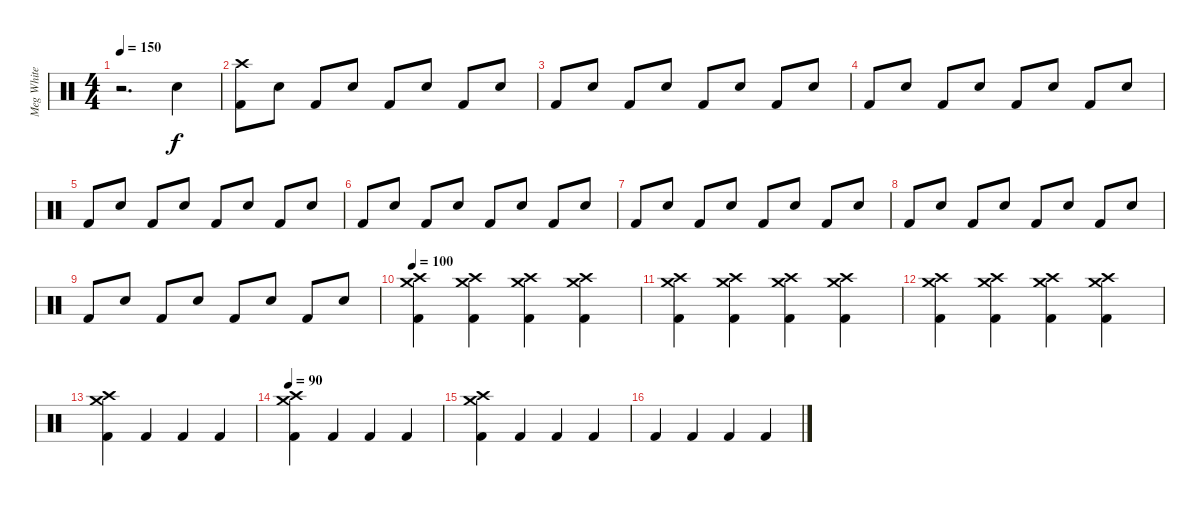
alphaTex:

\track ("Meg White" "Meg White") {instrument percussion}
\staff {score}
\articulation defaults
\ts (4 4)
\tempo 150
\clef neutral
\ks c
r.2{d dy f} "Electric Snare (hit)".4 |
("Kick (hit) 2" "Crash high (hit)").8 "Electric Snare (hit)".8 "Kick (hit) 2".8 "Electric Snare (hit)".8 "Kick (hit) 2".8 "Electric Snare (hit)".8 "Kick (hit) 2".8 "Electric Snare (hit)".8 |
"Kick (hit) 2".8 "Electric Snare (hit)".8 "Kick (hit) 2".8 "Electric Snare (hit)".8 "Kick (hit) 2".8 "Electric Snare (hit)".8 "Kick (hit) 2".8 "Electric Snare (hit)".8 |
"Kick (hit) 2".8 "Electric Snare (hit)".8 "Kick (hit) 2".8 "Electric Snare (hit)".8 "Kick (hit) 2".8 "Electric Snare (hit)".8 "Kick (hit) 2".8 "Electric Snare (hit)".8 |
"Kick (hit) 2".8 "Electric Snare (hit)".8 "Kick (hit) 2".8 "Electric Snare (hit)".8 "Kick (hit) 2".8 "Electric Snare (hit)".8 "Kick (hit) 2".8 "Electric Snare (hit)".8 |
"Kick (hit) 2".8 "Electric Snare (hit)".8 "Kick (hit) 2".8 "Electric Snare (hit)".8 "Kick (hit) 2".8 "Electric Snare (hit)".8 "Kick (hit) 2".8 "Electric Snare (hit)".8 |
"Kick (hit) 2".8 "Electric Snare (hit)".8 "Kick (hit) 2".8 "Electric Snare (hit)".8 "Kick (hit) 2".8 "Electric Snare (hit)".8 "Kick (hit) 2".8 "Electric Snare (hit)".8 |
"Kick (hit) 2".8 "Electric Snare (hit)".8 "Kick (hit) 2".8 "Electric Snare (hit)".8 "Kick (hit) 2".8 "Electric Snare (hit)".8 "Kick (hit) 2".8 "Electric Snare (hit)".8 |
"Kick (hit) 2".8 "Electric Snare (hit)".8 "Kick (hit) 2".8 "Electric Snare (hit)".8 "Kick (hit) 2".8 "Electric Snare (hit)".8 "Kick (hit) 2".8 "Electric Snare (hit)".8 |
\tempo 100
("Kick (hit) 2" "Crash high (hit)" "Crash medium (hit)").4 ("Kick (hit) 2" "Crash high (hit)" "Crash medium (hit)").4 ("Kick (hit) 2" "Crash high (hit)" "Crash medium (hit)").4 ("Kick (hit) 2" "Crash high (hit)" "Crash medium (hit)").4 |
("Kick (hit) 2" "Crash high (hit)" "Crash medium (hit)").4 ("Kick (hit) 2" "Crash high (hit)" "Crash medium (hit)").4 ("Kick (hit) 2" "Crash high (hit)" "Crash medium (hit)").4 ("Kick (hit) 2" "Crash high (hit)" "Crash medium (hit)").4 |
("Kick (hit) 2" "Crash high (hit)" "Crash medium (hit)").4 ("Kick (hit) 2" "Crash high (hit)" "Crash medium (hit)").4 ("Kick (hit) 2" "Crash high (hit)" "Crash medium (hit)").4 ("Kick (hit) 2" "Crash high (hit)" "Crash medium (hit)").4 |
("Kick (hit) 2" "Crash high (hit)" "Crash medium (hit)").4 "Kick (hit) 2".4 "Kick (hit) 2".4 "Kick (hit) 2".4 |
\tempo 90
("Kick (hit) 2" "Crash high (hit)" "Crash medium (hit)").4 "Kick (hit) 2".4 "Kick (hit) 2".4 "Kick (hit) 2".4 |
("Kick (hit) 2" "Crash high (hit)" "Crash medium (hit)").4 "Kick (hit) 2".4 "Kick (hit) 2".4 "Kick (hit) 2".4 |
"Kick (hit) 2".4 "Kick (hit) 2".4 "Kick (hit) 2".4 "Kick (hit) 2".4
